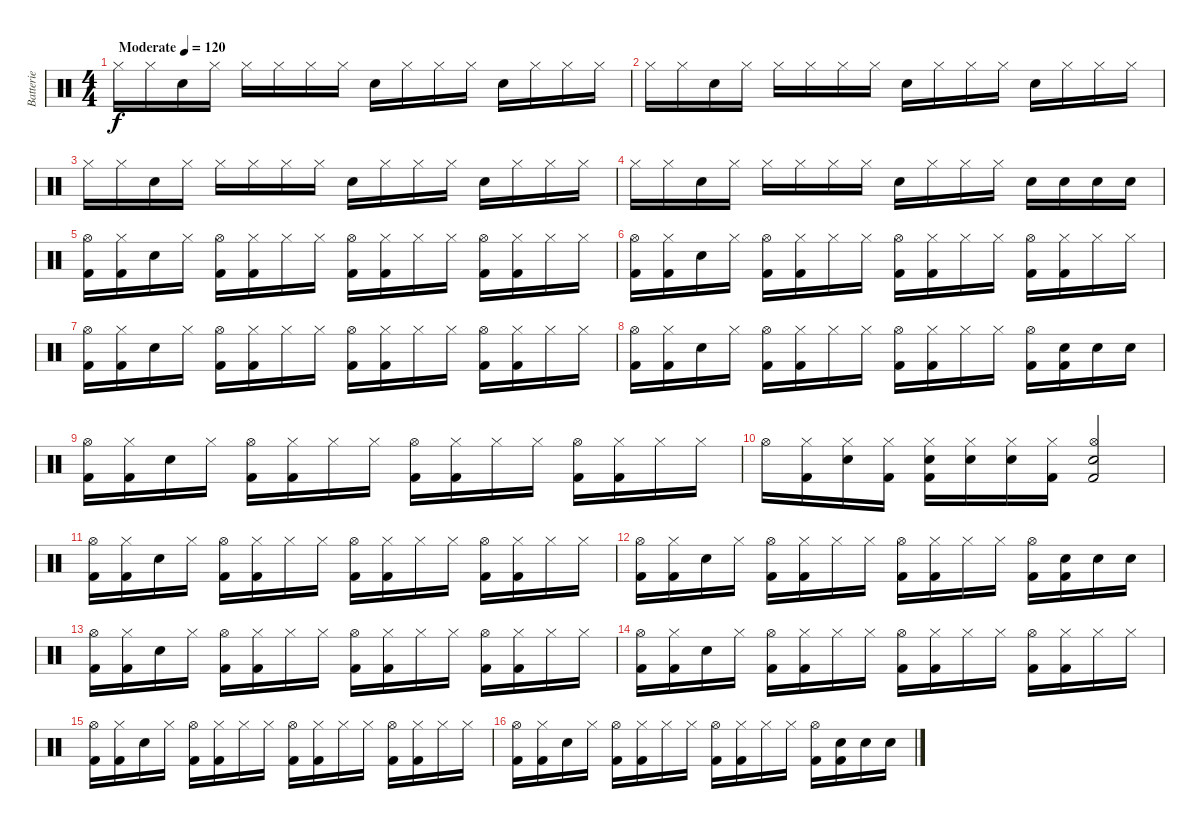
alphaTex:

\track ("Batterie" "Batterie") {instrument percussion}
\staff {score}
\articulation defaults
\ts (4 4)
\tempo (120 "Moderate")
\clef neutral
\ks c "Hi-Hat (closed)".16{dy f} "Hi-Hat (closed)".16 "Electric Snare (hit)".16 "Hi-Hat (closed)".16 "Hi-Hat (closed)".16 "Hi-Hat (closed)".16 "Hi-Hat (closed)".16 "Hi-Hat (closed)".16 "Electric Snare (hit)".16 "Hi-Hat (closed)".16 "Hi-Hat (closed)".16 "Hi-Hat (closed)".16 "Electric Snare (hit)".16 "Hi-Hat (closed)".16 "Hi-Hat (closed)".16 "Hi-Hat (closed)".16
|
"Hi-Hat (closed)".16 "Hi-Hat (closed)".16 "Electric Snare (hit)".16 "Hi-Hat (closed)".16 "Hi-Hat (closed)".16 "Hi-Hat (closed)".16 "Hi-Hat (closed)".16 "Hi-Hat (closed)".16 "Electric Snare (hit)".16 "Hi-Hat (closed)".16 "Hi-Hat (closed)".16 "Hi-Hat (closed)".16 "Electric Snare (hit)".16 "Hi-Hat (closed)".16 "Hi-Hat (closed)".16 "Hi-Hat (closed)".16 |
"Hi-Hat (closed)".16 "Hi-Hat (closed)".16 "Electric Snare (hit)".16 "Hi-Hat (closed)".16 "Hi-Hat (closed)".16 "Hi-Hat (closed)".16 "Hi-Hat (closed)".16 "Hi-Hat (closed)".16 "Electric Snare (hit)".16 "Hi-Hat (closed)".16 "Hi-Hat (closed)".16 "Hi-Hat (closed)".16 "Electric Snare (hit)".16 "Hi-Hat (closed)".16 "Hi-Hat (closed)".16 "Hi-Hat (closed)".16 |
"Hi-Hat (closed)".16 "Hi-Hat (closed)".16 "Electric Snare (hit)".16 "Hi-Hat (closed)".16 "Hi-Hat (closed)".16 "Hi-Hat (closed)".16 "Hi-Hat (closed)".16 "Hi-Hat (closed)".16 "Electric Snare (hit)".16 "Hi-Hat (closed)".16 "Hi-Hat (closed)".16 "Hi-Hat (closed)".16 "Electric Snare (hit)".16 "Electric Snare (hit)".16 "Electric Snare (hit)".16 "Electric Snare (hit)".16 |
("Hi-Hat (open)" "Kick (hit) 2").16 ("Hi-Hat (closed)" "Kick (hit) 2").16 "Electric Snare (hit)".16 "Hi-Hat (closed)".16 ("Hi-Hat (open)" "Kick (hit) 2").16 ("Hi-Hat (closed)" "Kick (hit) 2").16 "Hi-Hat (closed)".16 "Hi-Hat (closed)".16 ("Hi-Hat (open)" "Kick (hit) 2").16 ("Hi-Hat (closed)" "Kick (hit) 2").16 "Hi-Hat (closed)".16 "Hi-Hat (closed)".16 ("Hi-Hat (open)" "Kick (hit) 2").16 ("Hi-Hat (closed)" "Kick (hit) 2").16 "Hi-Hat (closed)".16 "Hi-Hat (closed)".16 |
("Hi-Hat (open)" "Kick (hit) 2").16 ("Hi-Hat (closed)" "Kick (hit) 2").16 "Electric Snare (hit)".16 "Hi-Hat (closed)".16 ("Hi-Hat (open)" "Kick (hit) 2").16 ("Hi-Hat (closed)" "Kick (hit) 2").16 "Hi-Hat (closed)".16 "Hi-Hat (closed)".16 ("Hi-Hat (open)" "Kick (hit) 2").16 ("Hi-Hat (closed)" "Kick (hit) 2").16 "Hi-Hat (closed)".16 "Hi-Hat (closed)".16 ("Hi-Hat (open)" "Kick (hit) 2").16 ("Hi-Hat (closed)" "Kick (hit) 2").16 "Hi-Hat (closed)".16 "Hi-Hat (closed)".16 |
("Hi-Hat (open)" "Kick (hit) 2").16 ("Hi-Hat (closed)" "Kick (hit) 2").16 "Electric Snare (hit)".16 "Hi-Hat (closed)".16 ("Hi-Hat (open)" "Kick (hit) 2").16 ("Hi-Hat (closed)" "Kick (hit) 2").16 "Hi-Hat (closed)".16 "Hi-Hat (closed)".16 ("Hi-Hat (open)" "Kick (hit) 2").16 ("Hi-Hat (closed)" "Kick (hit) 2").16 "Hi-Hat (closed)".16 "Hi-Hat (closed)".16 ("Hi-Hat (open)" "Kick (hit) 2").16 ("Hi-Hat (closed)" "Kick (hit) 2").16 "Hi-Hat (closed)".16 "Hi-Hat (closed)".16 |
("Hi-Hat (open)" "Kick (hit) 2").16 ("Hi-Hat (closed)" "Kick (hit) 2").16 "Electric Snare (hit)".16 "Hi-Hat (closed)".16 ("Hi-Hat (open)" "Kick (hit) 2").16 ("Hi-Hat (closed)" "Kick (hit) 2").16 "Hi-Hat (closed)".16 "Hi-Hat (closed)".16 ("Hi-Hat (open)" "Kick (hit) 2").16 ("Hi-Hat (closed)" "Kick (hit) 2").16 "Hi-Hat (closed)".16 "Hi-Hat (closed)".16 ("Hi-Hat (open)" "Kick (hit) 2").16 ("Electric Snare (hit)" "Kick (hit) 2").16 "Electric Snare (hit)".16 "Electric Snare (hit)".16 |
("Hi-Hat (open)" "Kick (hit) 2").16 ("Hi-Hat (closed)" "Kick (hit) 2").16 "Electric Snare (hit)".16 "Hi-Hat (closed)".16 ("Hi-Hat (open)" "Kick (hit) 2").16 ("Hi-Hat (closed)" "Kick (hit) 2").16 "Hi-Hat (closed)".16 "Hi-Hat (closed)".16 ("Hi-Hat (open)" "Kick (hit) 2").16 ("Hi-Hat (closed)" "Kick (hit) 2").16 "Hi-Hat (closed)".16 "Hi-Hat (closed)".16 ("Hi-Hat (open)" "Kick (hit) 2").16 ("Hi-Hat (closed)" "Kick (hit) 2").16 "Hi-Hat (closed)".16 "Hi-Hat (closed)".16 |
"Hi-Hat (open)".16 ("Hi-Hat (closed)" "Kick (hit) 2").16 ("Hi-Hat (closed)" "Electric Snare (hit)").16 ("Hi-Hat (closed)" "Kick (hit) 2").16 ("Hi-Hat (closed)" "Electric Snare (hit)" "Kick (hit) 2").16 ("Hi-Hat (closed)" "Electric Snare (hit)").16 ("Hi-Hat (closed)" "Electric Snare (hit)").16 ("Hi-Hat (closed)" "Kick (hit) 2").16 ("Hi-Hat (open)" "Electric Snare (hit)" "Kick (hit) 2").2 |
("Hi-Hat (open)" "Kick (hit) 2").16 ("Hi-Hat (closed)" "Kick (hit) 2").16 "Electric Snare (hit)".16 "Hi-Hat (closed)".16 ("Hi-Hat (open)" "Kick (hit) 2").16 ("Hi-Hat (closed)" "Kick (hit) 2").16 "Hi-Hat (closed)".16 "Hi-Hat (closed)".16 ("Hi-Hat (open)" "Kick (hit) 2").16 ("Hi-Hat (closed)" "Kick (hit) 2").16 "Hi-Hat (closed)".16 "Hi-Hat (closed)".16 ("Hi-Hat (open)" "Kick (hit) 2").16 ("Hi-Hat (closed)" "Kick (hit) 2").16 "Hi-Hat (closed)".16 "Hi-Hat (closed)".16 |
("Hi-Hat (open)" "Kick (hit) 2").16 ("Hi-Hat (closed)" "Kick (hit) 2").16 "Electric Snare (hit)".16 "Hi-Hat (closed)".16 ("Hi-Hat (open)" "Kick (hit) 2").16 ("Hi-Hat (closed)" "Kick (hit) 2").16 "Hi-Hat (closed)".16 "Hi-Hat (closed)".16 ("Hi-Hat (open)" "Kick (hit) 2").16 ("Hi-Hat (closed)" "Kick (hit) 2").16 "Hi-Hat (closed)".16 "Hi-Hat (closed)".16 ("Hi-Hat (open)" "Kick (hit) 2").16 ("Electric Snare (hit)" "Kick (hit) 2").16 "Electric Snare (hit)".16 "Electric Snare (hit)".16 |
("Hi-Hat (open)" "Kick (hit) 2").16 ("Hi-Hat (closed)" "Kick (hit) 2").16 "Electric Snare (hit)".16 "Hi-Hat (closed)".16 ("Hi-Hat (open)" "Kick (hit) 2").16 ("Hi-Hat (closed)" "Kick (hit) 2").16 "Hi-Hat (closed)".16 "Hi-Hat (closed)".16 ("Hi-Hat (open)" "Kick (hit) 2").16 ("Hi-Hat (closed)" "Kick (hit) 2").16 "Hi-Hat (closed)".16 "Hi-Hat (closed)".16 ("Hi-Hat (open)" "Kick (hit) 2").16 ("Hi-Hat (closed)" "Kick (hit) 2").16 "Hi-Hat (closed)".16 "Hi-Hat (closed)".16 |
("Hi-Hat (open)" "Kick (hit) 2").16 ("Hi-Hat (closed)" "Kick (hit) 2").16 "Electric Snare (hit)".16 "Hi-Hat (closed)".16 ("Hi-Hat (open)" "Kick (hit) 2").16 ("Hi-Hat (closed)" "Kick (hit) 2").16 "Hi-Hat (closed)".16 "Hi-Hat (closed)".16 ("Hi-Hat (open)" "Kick (hit) 2").16 ("Hi-Hat (closed)" "Kick (hit) 2").16 "Hi-Hat (closed)".16 "Hi-Hat (closed)".16 ("Hi-Hat (open)" "Kick (hit) 2").16 ("Hi-Hat (closed)" "Kick (hit) 2").16 "Hi-Hat (closed)".16 "Hi-Hat (closed)".16 |
("Hi-Hat (open)" "Kick (hit) 2").16 ("Hi-Hat (closed)" "Kick (hit) 2").16 "Electric Snare (hit)".16 "Hi-Hat (closed)".16 ("Hi-Hat (open)" "Kick (hit) 2").16 ("Hi-Hat (closed)" "Kick (hit) 2").16 "Hi-Hat (closed)".16 "Hi-Hat (closed)".16 ("Hi-Hat (open)" "Kick (hit) 2").16 ("Hi-Hat (closed)" "Kick (hit) 2").16 "Hi-Hat (closed)".16 "Hi-Hat (closed)".16 ("Hi-Hat (open)" "Kick (hit) 2").16 ("Hi-Hat (closed)" "Kick (hit) 2").16 "Hi-Hat (closed)".16 "Hi-Hat (closed)".16 |
("Hi-Hat (open)" "Kick (hit) 2").16 ("Hi-Hat (closed)" "Kick (hit) 2").16 "Electric Snare (hit)".16 "Hi-Hat (closed)".16 ("Hi-Hat (open)" "Kick (hit) 2").16 ("Hi-Hat (closed)" "Kick (hit) 2").16 "Hi-Hat (closed)".16 "Hi-Hat (closed)".16 ("Hi-Hat (open)" "Kick (hit) 2").16 ("Hi-Hat (closed)" "Kick (hit) 2").16 "Hi-Hat (closed)".16 "Hi-Hat (closed)".16 ("Hi-Hat (open)" "Kick (hit) 2").16 ("Electric Snare (hit)" "Kick (hit) 2").16 "Electric Snare (hit)".16 "Electric Snare (hit)".16
